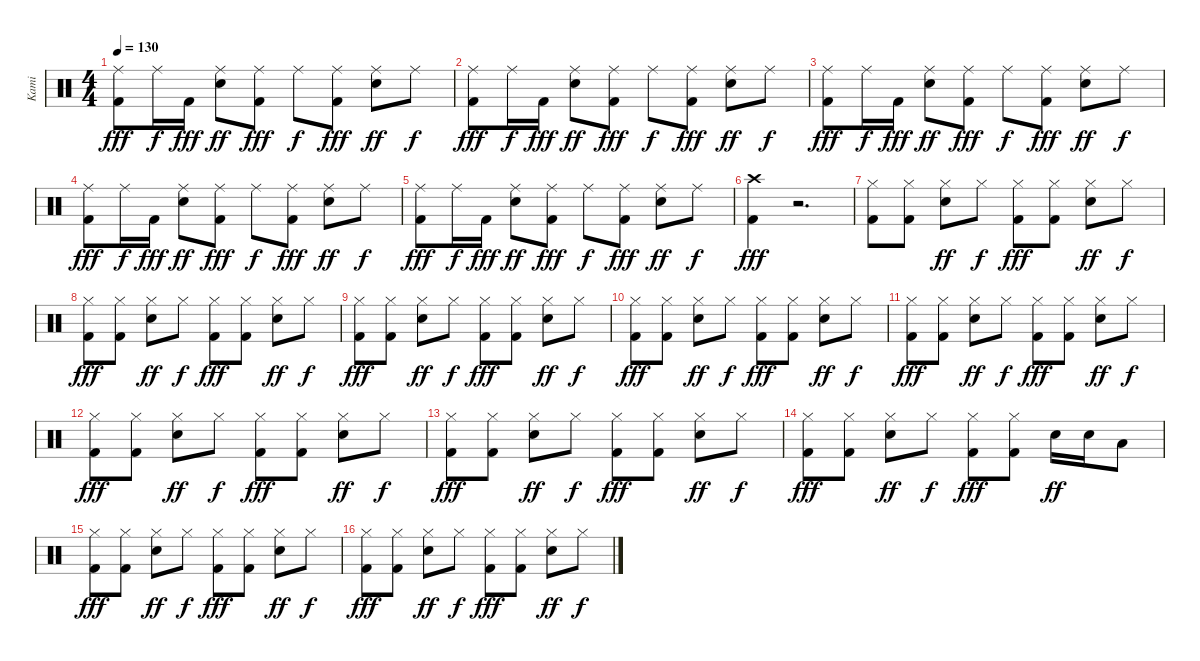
\track ("Kami" "Kami") {instrument percussion}
\staff {score}
\articulation defaults
\ts (4 4)
\tempo 130
\clef neutral
\ks c
("Ride (middle)" "Kick (hit) 2").8{dy fff} "Ride (middle)".16{dy f} "Kick (hit) 2".16{dy fff} ("Ride (middle)" "Snare (hit) 2").8{dy ff} ("Ride (middle)" "Kick (hit) 2").8{dy fff} "Ride (middle)".8{dy f} ("Ride (middle)" "Kick (hit) 2").8{dy fff} ("Ride (middle)" "Snare (hit) 2").8{dy ff} "Ride (middle)".8{dy f} |
("Ride (middle)" "Kick (hit) 2").8{dy fff} "Ride (middle)".16{dy f} "Kick (hit) 2".16{dy fff} ("Ride (middle)" "Snare (hit) 2").8{dy ff} ("Ride (middle)" "Kick (hit) 2").8{dy fff} "Ride (middle)".8{dy f} ("Ride (middle)" "Kick (hit) 2").8{dy fff} ("Ride (middle)" "Snare (hit) 2").8{dy ff} "Ride (middle)".8{dy f} |
("Ride (middle)" "Kick (hit) 2").8{dy fff} "Ride (middle)".16{dy f} "Kick (hit) 2".16{dy fff} ("Ride (middle)" "Snare (hit) 2").8{dy ff} ("Ride (middle)" "Kick (hit) 2").8{dy fff} "Ride (middle)".8{dy f} ("Ride (middle)" "Kick (hit) 2").8{dy fff} ("Ride (middle)" "Snare (hit) 2").8{dy ff} "Ride (middle)".8{dy f} |
("Ride (middle)" "Kick (hit) 2").8{dy fff} "Ride (middle)".16{dy f} "Kick (hit) 2".16{dy fff} ("Ride (middle)" "Snare (hit) 2").8{dy ff} ("Ride (middle)" "Kick (hit) 2").8{dy fff} "Ride (middle)".8{dy f} ("Ride (middle)" "Kick (hit) 2").8{dy fff} ("Ride (middle)" "Snare (hit) 2").8{dy ff} "Ride (middle)".8{dy f} |
("Ride (middle)" "Kick (hit) 2").8{dy fff} "Ride (middle)".16{dy f} "Kick (hit) 2".16{dy fff} ("Ride (middle)" "Snare (hit) 2").8{dy ff} ("Ride (middle)" "Kick (hit) 2").8{dy fff} "Ride (middle)".8{dy f} ("Ride (middle)" "Kick (hit) 2").8{dy fff} ("Ride (middle)" "Snare (hit) 2").8{dy ff} "Ride (middle)".8{dy f} |
("Crash high (hit)" "Kick (hit) 2").4{dy fff} r.2{d} |
("Hi-Hat (closed)" "Kick (hit) 2").8 ("Hi-Hat (closed)" "Kick (hit) 2").8 ("Hi-Hat (closed)" "Snare (hit) 2").8{dy ff} "Hi-Hat (closed)".8{dy f} ("Hi-Hat (closed)" "Kick (hit) 2").8{dy fff} ("Hi-Hat (closed)" "Kick (hit) 2").8 ("Hi-Hat (closed)" "Snare (hit) 2").8{dy ff} "Hi-Hat (closed)".8{dy f} |
("Hi-Hat (closed)" "Kick (hit) 2").8{dy fff} ("Hi-Hat (closed)" "Kick (hit) 2").8 ("Hi-Hat (closed)" "Snare (hit) 2").8{dy ff} "Hi-Hat (closed)".8{dy f} ("Hi-Hat (closed)" "Kick (hit) 2").8{dy fff} ("Hi-Hat (closed)" "Kick (hit) 2").8 ("Hi-Hat (closed)" "Snare (hit) 2").8{dy ff} "Hi-Hat (closed)".8{dy f} |
("Hi-Hat (closed)" "Kick (hit) 2").8{dy fff} ("Hi-Hat (closed)" "Kick (hit) 2").8 ("Hi-Hat (closed)" "Snare (hit) 2").8{dy ff} "Hi-Hat (closed)".8{dy f} ("Hi-Hat (closed)" "Kick (hit) 2").8{dy fff} ("Hi-Hat (closed)" "Kick (hit) 2").8 ("Hi-Hat (closed)" "Snare (hit) 2").8{dy ff} "Hi-Hat (closed)".8{dy f} |
("Hi-Hat (closed)" "Kick (hit) 2").8{dy fff} ("Hi-Hat (closed)" "Kick (hit) 2").8 ("Hi-Hat (closed)" "Snare (hit) 2").8{dy ff} "Hi-Hat (closed)".8{dy f} ("Hi-Hat (closed)" "Kick (hit) 2").8{dy fff} ("Hi-Hat (closed)" "Kick (hit) 2").8 ("Hi-Hat (closed)" "Snare (hit) 2").8{dy ff} "Hi-Hat (closed)".8{dy f} |
("Hi-Hat (closed)" "Kick (hit) 2").8{dy fff} ("Hi-Hat (closed)" "Kick (hit) 2").8 ("Hi-Hat (closed)" "Snare (hit) 2").8{dy ff} "Hi-Hat (closed)".8{dy f} ("Hi-Hat (closed)" "Kick (hit) 2").8{dy fff} ("Hi-Hat (closed)" "Kick (hit) 2").8 ("Hi-Hat (closed)" "Snare (hit) 2").8{dy ff} "Hi-Hat (closed)".8{dy f} |
("Hi-Hat (closed)" "Kick (hit) 2").8{dy fff} ("Hi-Hat (closed)" "Kick (hit) 2").8 ("Hi-Hat (closed)" "Snare (hit) 2").8{dy ff} "Hi-Hat (closed)".8{dy f} ("Hi-Hat (closed)" "Kick (hit) 2").8{dy fff} ("Hi-Hat (closed)" "Kick (hit) 2").8 ("Hi-Hat (closed)" "Snare (hit) 2").8{dy ff} "Hi-Hat (closed)".8{dy f} |
("Hi-Hat (closed)" "Kick (hit) 2").8{dy fff} ("Hi-Hat (closed)" "Kick (hit) 2").8 ("Hi-Hat (closed)" "Snare (hit) 2").8{dy ff} "Hi-Hat (closed)".8{dy f} ("Hi-Hat (closed)" "Kick (hit) 2").8{dy fff} ("Hi-Hat (closed)" "Kick (hit) 2").8 ("Hi-Hat (closed)" "Snare (hit) 2").8{dy ff} "Hi-Hat (closed)".8{dy f} |
("Hi-Hat (closed)" "Kick (hit) 2").8{dy fff} ("Hi-Hat (closed)" "Kick (hit) 2").8 ("Hi-Hat (closed)" "Snare (hit) 2").8{dy ff} "Hi-Hat (closed)".8{dy f} ("Hi-Hat (closed)" "Kick (hit) 2").8{dy fff} ("Hi-Hat (closed)" "Kick (hit) 2").8 "Snare (hit) 2".16{dy ff} "Snare (hit) 2".16 "Low Floor Tom (hit)".8 |
("Hi-Hat (closed)" "Kick (hit) 2").8{dy fff} ("Hi-Hat (closed)" "Kick (hit) 2").8 ("Hi-Hat (closed)" "Snare (hit) 2").8{dy ff} "Hi-Hat (closed)".8{dy f} ("Hi-Hat (closed)" "Kick (hit) 2").8{dy fff} ("Hi-Hat (closed)" "Kick (hit) 2").8 ("Hi-Hat (closed)" "Snare (hit) 2").8{dy ff} "Hi-Hat (closed)".8{dy f} |
("Hi-Hat (closed)" "Kick (hit) 2").8{dy fff} ("Hi-Hat (closed)" "Kick (hit) 2").8 ("Hi-Hat (closed)" "Snare (hit) 2").8{dy ff} "Hi-Hat (closed)".8{dy f} ("Hi-Hat (closed)" "Kick (hit) 2").8{dy fff} ("Hi-Hat (closed)" "Kick (hit) 2").8 ("Hi-Hat (closed)" "Snare (hit) 2").8{dy ff} "Hi-Hat (closed)".8{dy f}
